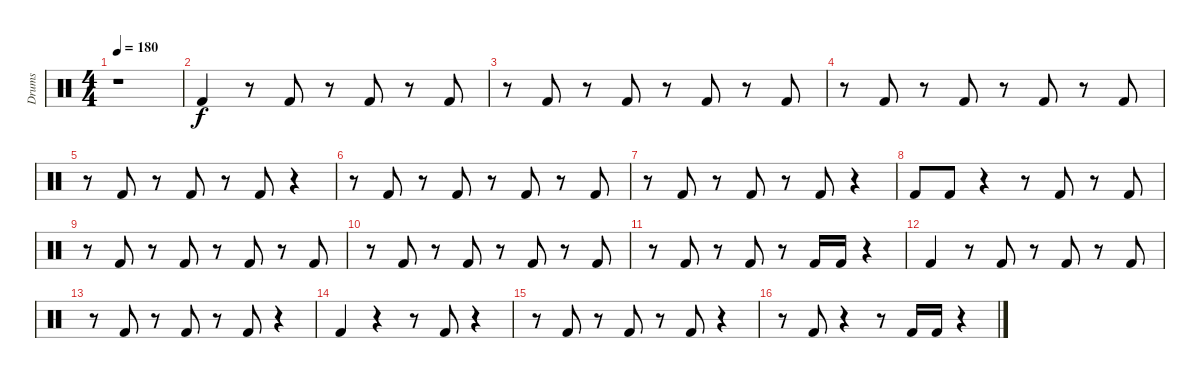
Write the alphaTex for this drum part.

\track ("Drums" "Drums") {instrument percussion}
\staff {score}
\articulation defaults
\ts (4 4)
\tempo 180
\clef neutral
\ks c
r.1{dy f} |
"Kick (hit) 2".4 r.8 "Kick (hit) 2".8 r.8 "Kick (hit) 2".8 r.8 "Kick (hit) 2".8 |
r.8 "Kick (hit) 2".8 r.8 "Kick (hit) 2".8 r.8 "Kick (hit) 2".8 r.8 "Kick (hit) 2".8 |
r.8 "Kick (hit) 2".8 r.8 "Kick (hit) 2".8 r.8 "Kick (hit) 2".8 r.8 "Kick (hit) 2".8 |
r.8 "Kick (hit) 2".8 r.8 "Kick (hit) 2".8 r.8 "Kick (hit) 2".8 r.4 |
r.8 "Kick (hit) 2".8 r.8 "Kick (hit) 2".8 r.8 "Kick (hit) 2".8 r.8 "Kick (hit) 2".8 |
r.8 "Kick (hit) 2".8 r.8 "Kick (hit) 2".8 r.8 "Kick (hit) 2".8 r.4 |
"Kick (hit) 2".8 "Kick (hit) 2".8 r.4 r.8 "Kick (hit) 2".8 r.8 "Kick (hit) 2".8 |
r.8 "Kick (hit) 2".8 r.8 "Kick (hit) 2".8 r.8 "Kick (hit) 2".8 r.8 "Kick (hit) 2".8 |
r.8 "Kick (hit) 2".8 r.8 "Kick (hit) 2".8 r.8 "Kick (hit) 2".8 r.8 "Kick (hit) 2".8 |
r.8 "Kick (hit) 2".8 r.8 "Kick (hit) 2".8 r.8 "Kick (hit) 2".16 "Kick (hit) 2".16 r.4 |
"Kick (hit) 2".4 r.8 "Kick (hit) 2".8 r.8 "Kick (hit) 2".8 r.8 "Kick (hit) 2".8 |
r.8 "Kick (hit) 2".8 r.8 "Kick (hit) 2".8 r.8 "Kick (hit) 2".8 r.4 |
"Kick (hit) 2".4 r.4 r.8 "Kick (hit) 2".8 r.4 |
r.8 "Kick (hit) 2".8 r.8 "Kick (hit) 2".8 r.8 "Kick (hit) 2".8 r.4 |
r.8 "Kick (hit) 2".8 r.4 r.8 "Kick (hit) 2".16 "Kick (hit) 2".16 r.4
